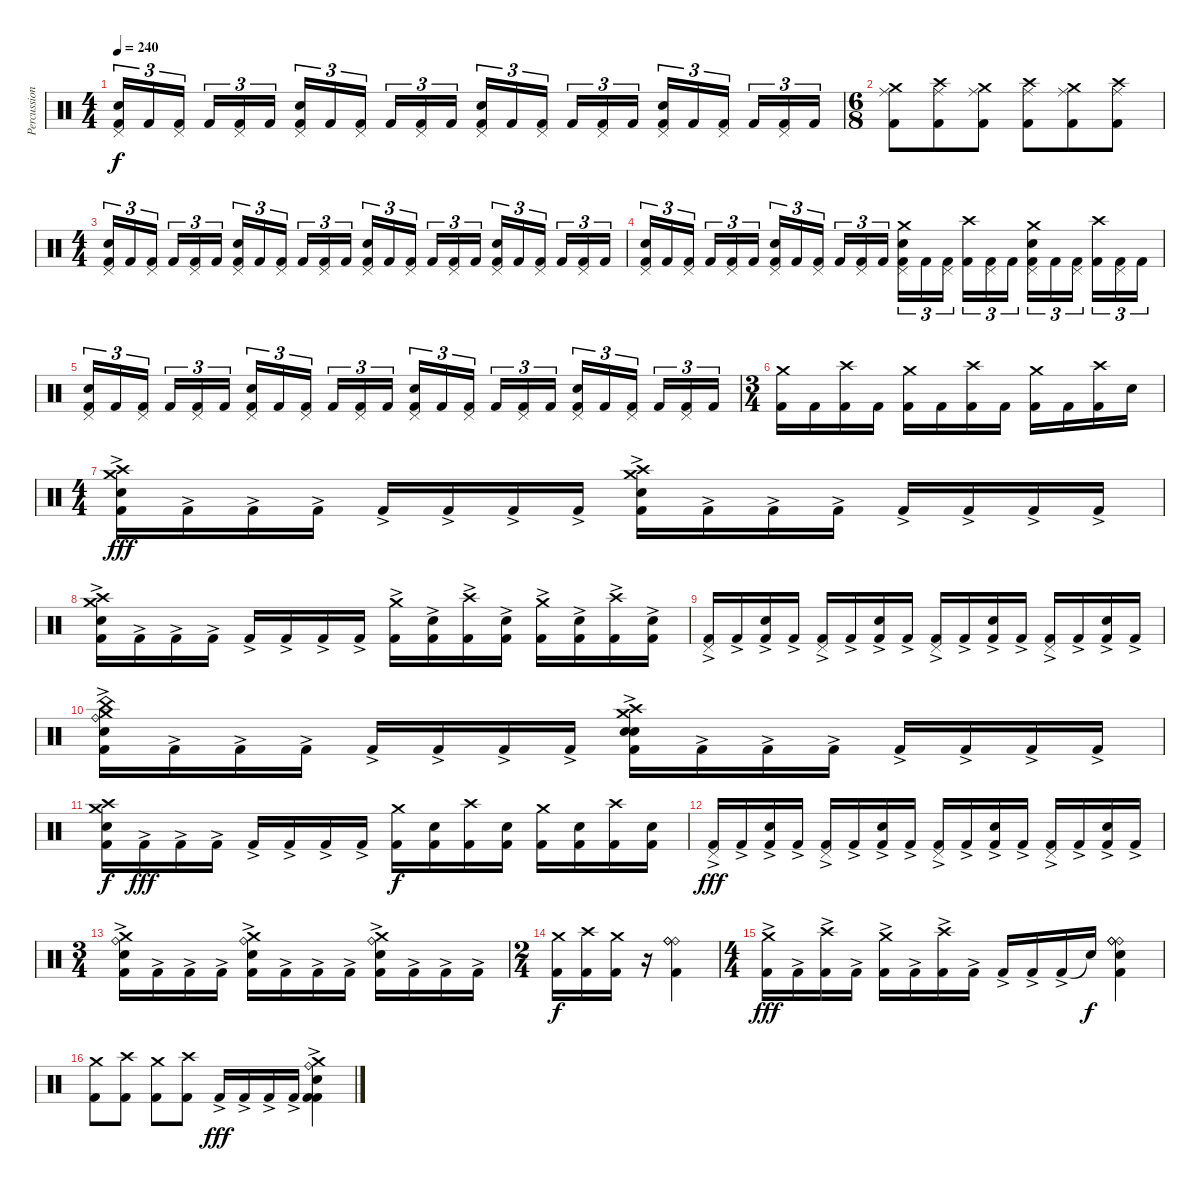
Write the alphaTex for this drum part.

\track ("Percussions" "Percussion") {instrument percussion}
\staff {score}
\articulation defaults
\ts (4 4)
\tempo 240
\clef neutral
\ks c
("Snare (hit) 2" "Pedal Hi-Hat (hit)" "Kick (hit) 2").16{tu (3 2) dy f} "Kick (hit) 2".16{tu (3 2)} ("Pedal Hi-Hat (hit)" "Kick (hit) 2").16{tu (3 2)} "Kick (hit) 2".16{tu (3 2)} ("Pedal Hi-Hat (hit)" "Kick (hit) 2").16{tu (3 2)} "Kick (hit) 2".16{tu (3 2)} ("Snare (hit) 2" "Pedal Hi-Hat (hit)" "Kick (hit) 2").16{tu (3 2)} "Kick (hit) 2".16{tu (3 2)} ("Pedal Hi-Hat (hit)" "Kick (hit) 2").16{tu (3 2)} "Kick (hit) 2".16{tu (3 2)} ("Pedal Hi-Hat (hit)" "Kick (hit) 2").16{tu (3 2)} "Kick (hit) 2".16{tu (3 2)} ("Snare (hit) 2" "Pedal Hi-Hat (hit)" "Kick (hit) 2").16{tu (3 2)} "Kick (hit) 2".16{tu (3 2)} ("Pedal Hi-Hat (hit)" "Kick (hit) 2").16{tu (3 2)} "Kick (hit) 2".16{tu (3 2)} ("Pedal Hi-Hat (hit)" "Kick (hit) 2").16{tu (3 2)} "Kick (hit) 2".16{tu (3 2)} ("Snare (hit) 2" "Pedal Hi-Hat (hit)" "Kick (hit) 2").16{tu (3 2)} "Kick (hit) 2".16{tu (3 2)} ("Pedal Hi-Hat (hit)" "Kick (hit) 2").16{tu (3 2)} "Kick (hit) 2".16{tu (3 2)} ("Pedal Hi-Hat (hit)" "Kick (hit) 2").16{tu (3 2)} "Kick (hit) 2".16{tu (3 2)} |
\ts (6 8)
("Ride (middle)" "Crash medium (hit)" "Kick (hit) 2").8 ("Ride (middle)" "Crash high (hit)" "Kick (hit) 2").8 ("Ride (middle)" "Crash medium (hit)" "Kick (hit) 2").8 ("Ride (middle)" "Crash high (hit)" "Kick (hit) 2").8 ("Ride (middle)" "Crash medium (hit)" "Kick (hit) 2").8 ("Ride (middle)" "Crash high (hit)" "Kick (hit) 2").8 |
\ts (4 4)
("Snare (hit) 2" "Pedal Hi-Hat (hit)" "Kick (hit) 2").16{tu (3 2)} "Kick (hit) 2".16{tu (3 2)} ("Pedal Hi-Hat (hit)" "Kick (hit) 2").16{tu (3 2)} "Kick (hit) 2".16{tu (3 2)} ("Pedal Hi-Hat (hit)" "Kick (hit) 2").16{tu (3 2)} "Kick (hit) 2".16{tu (3 2)} ("Snare (hit) 2" "Pedal Hi-Hat (hit)" "Kick (hit) 2").16{tu (3 2)} "Kick (hit) 2".16{tu (3 2)} ("Pedal Hi-Hat (hit)" "Kick (hit) 2").16{tu (3 2)} "Kick (hit) 2".16{tu (3 2)} ("Pedal Hi-Hat (hit)" "Kick (hit) 2").16{tu (3 2)} "Kick (hit) 2".16{tu (3 2)} ("Snare (hit) 2" "Pedal Hi-Hat (hit)" "Kick (hit) 2").16{tu (3 2)} "Kick (hit) 2".16{tu (3 2)} ("Pedal Hi-Hat (hit)" "Kick (hit) 2").16{tu (3 2)} "Kick (hit) 2".16{tu (3 2)} ("Pedal Hi-Hat (hit)" "Kick (hit) 2").16{tu (3 2)} "Kick (hit) 2".16{tu (3 2)} ("Snare (hit) 2" "Pedal Hi-Hat (hit)" "Kick (hit) 2").16{tu (3 2)} "Kick (hit) 2".16{tu (3 2)} ("Pedal Hi-Hat (hit)" "Kick (hit) 2").16{tu (3 2)} "Kick (hit) 2".16{tu (3 2)} ("Pedal Hi-Hat (hit)" "Kick (hit) 2").16{tu (3 2)} "Kick (hit) 2".16{tu (3 2)} |
("Snare (hit) 2" "Pedal Hi-Hat (hit)" "Kick (hit) 2").16{tu (3 2)} "Kick (hit) 2".16{tu (3 2)} ("Pedal Hi-Hat (hit)" "Kick (hit) 2").16{tu (3 2)} "Kick (hit) 2".16{tu (3 2)} ("Pedal Hi-Hat (hit)" "Kick (hit) 2").16{tu (3 2)} "Kick (hit) 2".16{tu (3 2)} ("Snare (hit) 2" "Pedal Hi-Hat (hit)" "Kick (hit) 2").16{tu (3 2)} "Kick (hit) 2".16{tu (3 2)} ("Pedal Hi-Hat (hit)" "Kick (hit) 2").16{tu (3 2)} "Kick (hit) 2".16{tu (3 2)} ("Pedal Hi-Hat (hit)" "Kick (hit) 2").16{tu (3 2)} "Kick (hit) 2".16{tu (3 2)} ("Crash medium (hit)" "Snare (hit) 2" "Pedal Hi-Hat (hit)" "Kick (hit) 2").16{tu (3 2)} "Kick (hit) 2".16{tu (3 2)} ("Pedal Hi-Hat (hit)" "Kick (hit) 2").16{tu (3 2)} ("Crash high (hit)" "Kick (hit) 2").16{tu (3 2)} ("Pedal Hi-Hat (hit)" "Kick (hit) 2").16{tu (3 2)} "Kick (hit) 2".16{tu (3 2)} ("Crash medium (hit)" "Snare (hit) 2" "Pedal Hi-Hat (hit)" "Kick (hit) 2").16{tu (3 2)} "Kick (hit) 2".16{tu (3 2)} ("Pedal Hi-Hat (hit)" "Kick (hit) 2").16{tu (3 2)} ("Crash high (hit)" "Kick (hit) 2").16{tu (3 2)} ("Pedal Hi-Hat (hit)" "Kick (hit) 2").16{tu (3 2)} "Kick (hit) 2".16{tu (3 2)} |
("Snare (hit) 2" "Pedal Hi-Hat (hit)" "Kick (hit) 2").16{tu (3 2)} "Kick (hit) 2".16{tu (3 2)} ("Pedal Hi-Hat (hit)" "Kick (hit) 2").16{tu (3 2)} "Kick (hit) 2".16{tu (3 2)} ("Pedal Hi-Hat (hit)" "Kick (hit) 2").16{tu (3 2)} "Kick (hit) 2".16{tu (3 2)} ("Snare (hit) 2" "Pedal Hi-Hat (hit)" "Kick (hit) 2").16{tu (3 2)} "Kick (hit) 2".16{tu (3 2)} ("Pedal Hi-Hat (hit)" "Kick (hit) 2").16{tu (3 2)} "Kick (hit) 2".16{tu (3 2)} ("Pedal Hi-Hat (hit)" "Kick (hit) 2").16{tu (3 2)} "Kick (hit) 2".16{tu (3 2)} ("Snare (hit) 2" "Pedal Hi-Hat (hit)" "Kick (hit) 2").16{tu (3 2)} "Kick (hit) 2".16{tu (3 2)} ("Pedal Hi-Hat (hit)" "Kick (hit) 2").16{tu (3 2)} "Kick (hit) 2".16{tu (3 2)} ("Pedal Hi-Hat (hit)" "Kick (hit) 2").16{tu (3 2)} "Kick (hit) 2".16{tu (3 2)} ("Snare (hit) 2" "Pedal Hi-Hat (hit)" "Kick (hit) 2").16{tu (3 2)} "Kick (hit) 2".16{tu (3 2)} ("Pedal Hi-Hat (hit)" "Kick (hit) 2").16{tu (3 2)} "Kick (hit) 2".16{tu (3 2)} ("Pedal Hi-Hat (hit)" "Kick (hit) 2").16{tu (3 2)} "Kick (hit) 2".16{tu (3 2)} |
\ts (3 4)
("Crash medium (hit)" "Kick (hit) 2").16 "Kick (hit) 2".16 ("Crash high (hit)" "Kick (hit) 2").16 "Kick (hit) 2".16 ("Crash medium (hit)" "Kick (hit) 2").16 "Kick (hit) 2".16 ("Crash high (hit)" "Kick (hit) 2").16 "Kick (hit) 2".16 ("Crash medium (hit)" "Kick (hit) 2").16 "Kick (hit) 2".16 ("Crash high (hit)" "Kick (hit) 2").16 "Snare (hit)".16 |
\ts (4 4)
("Snare (hit) 2" "Crash high (hit)" "Crash medium (hit)" "Kick (hit) 2"{ac}).16{dy fff} "Kick (hit) 2"{ac}.16 "Kick (hit) 2"{ac}.16 "Kick (hit) 2"{ac}.16 "Kick (hit) 2"{ac}.16 "Kick (hit) 2"{ac}.16 "Kick (hit) 2"{ac}.16 "Kick (hit) 2"{ac}.16 ("Snare (hit) 2" "Crash high (hit)" "Crash medium (hit)" "Kick (hit) 2"{ac}).16 "Kick (hit) 2"{ac}.16 "Kick (hit) 2"{ac}.16 "Kick (hit) 2"{ac}.16 "Kick (hit) 2"{ac}.16 "Kick (hit) 2"{ac}.16 "Kick (hit) 2"{ac}.16 "Kick (hit) 2"{ac}.16 |
("Snare (hit) 2" "Crash high (hit)" "Crash medium (hit)" "Kick (hit) 2"{ac}).16 "Kick (hit) 2"{ac}.16 "Kick (hit) 2"{ac}.16 "Kick (hit) 2"{ac}.16 "Kick (hit) 2"{ac}.16 "Kick (hit) 2"{ac}.16 "Kick (hit) 2"{ac}.16 "Kick (hit) 2"{ac}.16 ("Crash medium (hit)" "Kick (hit) 2"{ac}).16 ("Snare (hit) 2" "Kick (hit) 2"{ac}).16 ("Crash high (hit)" "Kick (hit) 2"{ac}).16 ("Snare (hit) 2" "Kick (hit) 2"{ac}).16 ("Crash medium (hit)" "Kick (hit) 2"{ac}).16 ("Snare (hit) 2" "Kick (hit) 2"{ac}).16 ("Crash high (hit)" "Kick (hit) 2"{ac}).16 ("Snare (hit) 2" "Kick (hit) 2"{ac}).16 |
("Pedal Hi-Hat (hit)" "Kick (hit) 2"{ac}).16 "Kick (hit) 2"{ac}.16 ("Snare (hit) 2" "Kick (hit) 2"{ac}).16 "Kick (hit) 2"{ac}.16 ("Pedal Hi-Hat (hit)" "Kick (hit) 2"{ac}).16 "Kick (hit) 2"{ac}.16 ("Snare (hit) 2" "Kick (hit) 2"{ac}).16 "Kick (hit) 2"{ac}.16 ("Pedal Hi-Hat (hit)" "Kick (hit) 2"{ac}).16 "Kick (hit) 2"{ac}.16 ("Snare (hit) 2" "Kick (hit) 2"{ac}).16 "Kick (hit) 2"{ac}.16 ("Pedal Hi-Hat (hit)" "Kick (hit) 2"{ac}).16 "Kick (hit) 2"{ac}.16 ("Snare (hit) 2" "Kick (hit) 2"{ac}).16 "Kick (hit) 2"{ac}.16 |
("Snare (hit) 2" "China (hit)" "Crash medium (hit)" "Ride (bell)" "Kick (hit) 2"{ac}).16 "Kick (hit) 2"{ac}.16 "Kick (hit) 2"{ac}.16 "Kick (hit) 2"{ac}.16 "Kick (hit) 2"{ac}.16 "Kick (hit) 2"{ac}.16 "Kick (hit) 2"{ac}.16 "Kick (hit) 2"{ac}.16 ("Snare (hit) 2" "Crash medium (hit)" "Crash high (hit)" "Snare (hit) 2" "Kick (hit) 2"{ac}).16 "Kick (hit) 2"{ac}.16 "Kick (hit) 2"{ac}.16 "Kick (hit) 2"{ac}.16 "Kick (hit) 2"{ac}.16 "Kick (hit) 2"{ac}.16 "Kick (hit) 2"{ac}.16 "Kick (hit) 2"{ac}.16 |
("Snare (hit) 2" "Crash high (hit)" "Crash medium (hit)" "Kick (hit) 2").16{dy f} "Kick (hit) 2"{ac}.16{dy fff} "Kick (hit) 2"{ac}.16 "Kick (hit) 2"{ac}.16 "Kick (hit) 2"{ac}.16 "Kick (hit) 2"{ac}.16 "Kick (hit) 2"{ac}.16 "Kick (hit) 2"{ac}.16 ("Crash medium (hit)" "Kick (hit) 2").16{dy f} ("Snare (hit) 2" "Kick (hit) 2").16 ("Crash high (hit)" "Kick (hit) 2").16 ("Snare (hit) 2" "Kick (hit) 2").16 ("Crash medium (hit)" "Kick (hit) 2").16 ("Snare (hit) 2" "Kick (hit) 2").16 ("Crash high (hit)" "Kick (hit) 2").16 ("Snare (hit) 2" "Kick (hit) 2").16 |
("Pedal Hi-Hat (hit)" "Kick (hit) 2"{ac}).16{dy fff} "Kick (hit) 2"{ac}.16 ("Snare (hit) 2" "Kick (hit) 2"{ac}).16 "Kick (hit) 2"{ac}.16 ("Pedal Hi-Hat (hit)" "Kick (hit) 2"{ac}).16 "Kick (hit) 2"{ac}.16 ("Snare (hit) 2" "Kick (hit) 2"{ac}).16 "Kick (hit) 2"{ac}.16 ("Pedal Hi-Hat (hit)" "Kick (hit) 2"{ac}).16 "Kick (hit) 2"{ac}.16 ("Snare (hit) 2" "Kick (hit) 2"{ac}).16 "Kick (hit) 2"{ac}.16 ("Pedal Hi-Hat (hit)" "Kick (hit) 2"{ac}).16 "Kick (hit) 2"{ac}.16 ("Snare (hit) 2" "Kick (hit) 2"{ac}).16 "Kick (hit) 2"{ac}.16 |
\ts (3 4)
("Ride (bell)" "Crash medium (hit)" "Snare (hit) 2" "Kick (hit) 2"{ac}).16 "Kick (hit) 2"{ac}.16 "Kick (hit) 2"{ac}.16 "Kick (hit) 2"{ac}.16 ("Ride (bell)" "Crash medium (hit)" "Snare (hit) 2" "Kick (hit) 2"{ac}).16 "Kick (hit) 2"{ac}.16 "Kick (hit) 2"{ac}.16 "Kick (hit) 2"{ac}.16 ("Ride (bell)" "Crash medium (hit)" "Snare (hit) 2" "Kick (hit) 2"{ac}).16 "Kick (hit) 2"{ac}.16 "Kick (hit) 2"{ac}.16 "Kick (hit) 2"{ac}.16 |
\ts (2 4)
("Crash medium (hit)" "Kick (hit) 2").16{dy f} ("Crash high (hit)" "Kick (hit) 2").16 ("Crash medium (hit)" "Kick (hit) 2").16 r.16 ("Ride (bell)" "Ride (bell)" "Ride (bell)" "Kick (hit) 2").4 |
\ts (4 4)
("Crash medium (hit)" "Kick (hit) 2"{ac}).16{dy fff} "Kick (hit) 2"{ac}.16 ("Crash high (hit)" "Kick (hit) 2"{ac}).16 "Kick (hit) 2"{ac}.16 ("Crash medium (hit)" "Kick (hit) 2"{ac}).16 "Kick (hit) 2"{ac}.16 ("Crash high (hit)" "Kick (hit) 2"{ac}).16 "Kick (hit) 2"{ac}.16 "Kick (hit) 2"{ac}.16 "Kick (hit) 2"{ac}.16 "Kick (hit) 2"{ac}.16 "Snare (hit)"{t}.16{dy f} ("Snare (hit) 2" "Ride (bell)" "Ride (bell)" "Ride (bell)" "Kick (hit) 2").4 |
("Crash medium (hit)" "Kick (hit) 2").8 ("Crash high (hit)" "Kick (hit) 2").8 ("Crash medium (hit)" "Kick (hit) 2").8 ("Crash high (hit)" "Kick (hit) 2").8 "Kick (hit) 2"{ac}.16{dy fff} "Kick (hit) 2"{ac}.16 "Kick (hit) 2"{ac}.16 "Kick (hit) 2"{ac}.16 ("Snare (hit) 2" "Crash medium (hit)" "Ride (bell)" "Kick (hit) 2" "Kick (hit) 2"{ac}).4
